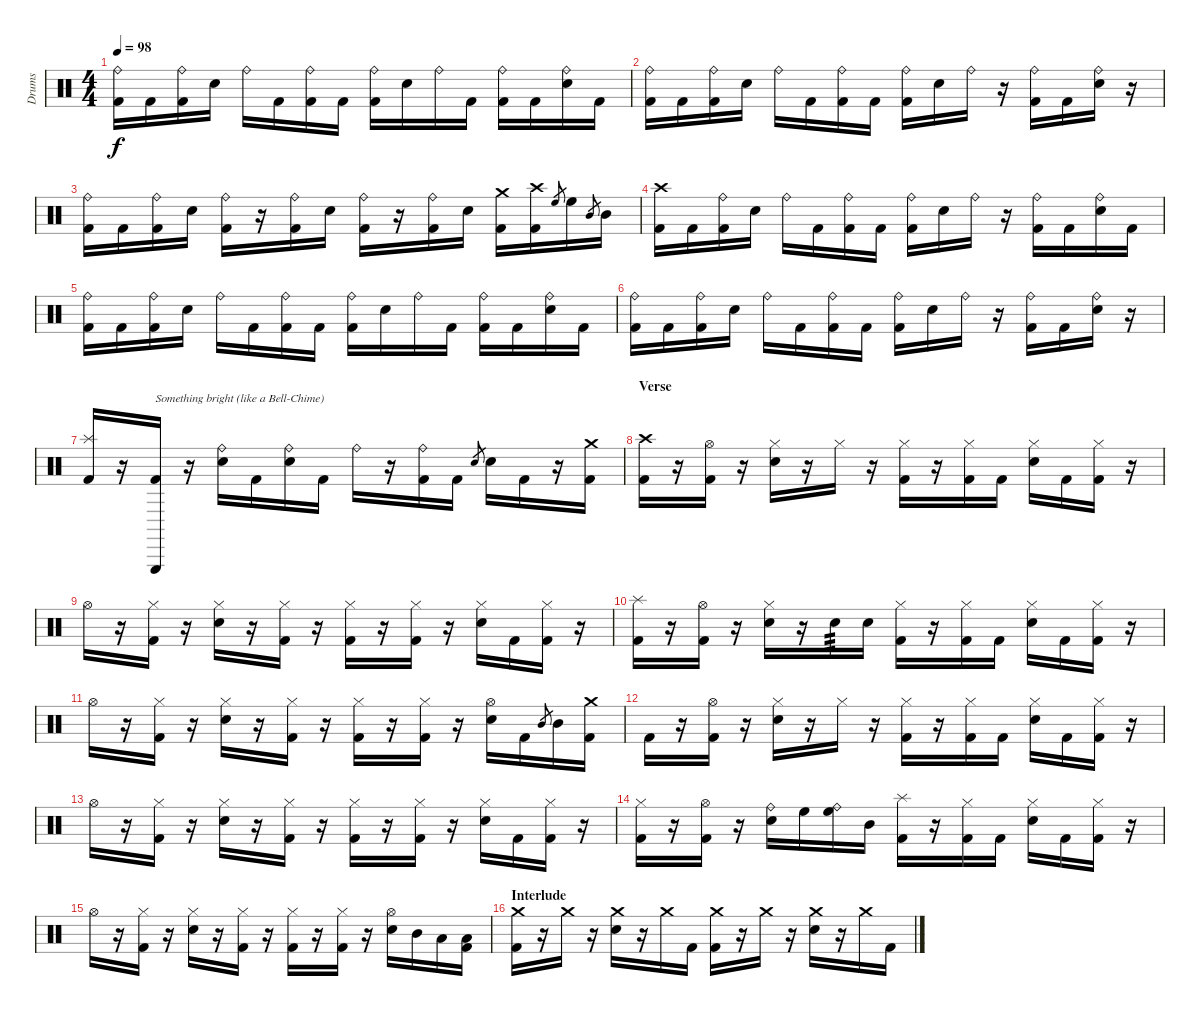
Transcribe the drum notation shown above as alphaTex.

\track ("Drums" "Drums") {instrument percussion}
\staff {score}
\articulation defaults
\ts (4 4)
\tempo 98
\clef neutral
\ks c
("Ride (bell)" "Kick (hit) 2").16{dy f} "Kick (hit) 2".16 ("Ride (bell)" "Kick (hit) 2").16 "Electric Snare (hit)".16 "Ride (bell)".16 "Kick (hit) 2".16 ("Ride (bell)" "Kick (hit) 2").16 "Kick (hit) 2".16 ("Ride (bell)" "Kick (hit) 2").16 "Electric Snare (hit)".16 "Ride (bell)".16 "Kick (hit) 2".16 ("Ride (bell)" "Kick (hit) 2").16 "Kick (hit) 2".16 ("Ride (bell)" "Electric Snare (hit)").16 "Kick (hit) 2".16 |
("Ride (bell)" "Kick (hit) 2").16 "Kick (hit) 2".16 ("Ride (bell)" "Kick (hit) 2").16 "Electric Snare (hit)".16 "Ride (bell)".16 "Kick (hit) 2".16 ("Ride (bell)" "Kick (hit) 2").16 "Kick (hit) 2".16 ("Ride (bell)" "Kick (hit) 2").16 "Electric Snare (hit)".16 "Ride (bell)".16 r.16 ("Ride (bell)" "Kick (hit) 2").16 "Kick (hit) 2".16 ("Ride (bell)" "Electric Snare (hit)").16 r.16 |
("Ride (bell)" "Kick (hit) 2").16 "Kick (hit) 2".16 ("Ride (bell)" "Kick (hit) 2").16 "Electric Snare (hit)".16 ("Ride (bell)" "Kick (hit) 2").16 r.16 ("Ride (bell)" "Kick (hit) 2").16 "Electric Snare (hit)".16 ("Ride (bell)" "Kick (hit) 2").16 r.16 ("Ride (bell)" "Kick (hit) 2").16 "Electric Snare (hit)".16 ("Crash medium (hit)" "Kick (hit) 2").16 ("Crash high (hit)" "Kick (hit) 2").16 "High Floor Tom (hit)".8{gr} "High Floor Tom (hit)".16 "Mid Tom (hit)".8{gr} "Mid Tom (hit)".16 |
("Crash high (hit)" "Kick (hit) 2").16 "Kick (hit) 2".16 ("Ride (bell)" "Kick (hit) 2").16 "Electric Snare (hit)".16 "Ride (bell)".16 "Kick (hit) 2".16 ("Ride (bell)" "Kick (hit) 2").16 "Kick (hit) 2".16 ("Ride (bell)" "Kick (hit) 2").16 "Electric Snare (hit)".16 "Ride (bell)".16 r.16 ("Ride (bell)" "Kick (hit) 2").16 "Kick (hit) 2".16 ("Ride (bell)" "Electric Snare (hit)").16 "Kick (hit) 2".16 |
("Ride (bell)" "Kick (hit) 2").16 "Kick (hit) 2".16 ("Ride (bell)" "Kick (hit) 2").16 "Electric Snare (hit)".16 "Ride (bell)".16 "Kick (hit) 2".16 ("Ride (bell)" "Kick (hit) 2").16 "Kick (hit) 2".16 ("Ride (bell)" "Kick (hit) 2").16 "Electric Snare (hit)".16 "Ride (bell)".16 "Kick (hit) 2".16 ("Ride (bell)" "Kick (hit) 2").16 "Kick (hit) 2".16 ("Ride (bell)" "Electric Snare (hit)").16 "Kick (hit) 2".16 |
("Ride (bell)" "Kick (hit) 2").16 "Kick (hit) 2".16 ("Ride (bell)" "Kick (hit) 2").16 "Electric Snare (hit)".16 "Ride (bell)".16 "Kick (hit) 2".16 ("Ride (bell)" "Kick (hit) 2").16 "Kick (hit) 2".16 ("Ride (bell)" "Kick (hit) 2").16 "Electric Snare (hit)".16 "Ride (bell)".16 r.16 ("Ride (bell)" "Kick (hit) 2").16 "Kick (hit) 2".16 ("Ride (bell)" "Electric Snare (hit)").16 r.16 |
("Splash (hit)" "Kick (hit) 2").16 r.16 ("Triangle (hit)" "Kick (hit) 2").16{txt "Something bright (like a Bell-Chime)"} r.16 ("Ride (bell)" "Electric Snare (hit)").16 "Kick (hit) 2".16 ("Ride (bell)" "Electric Snare (hit)").16 "Kick (hit) 2".16 "Ride (bell)".16 r.16 ("Ride (bell)" "Kick (hit) 2").16 "Kick (hit) 2".16 "Electric Snare (hit)".8{gr} "Electric Snare (hit)".16 "Kick (hit) 2".16 r.16 ("Crash medium (hit)" "Kick (hit) 2").16 |
\section ("" "Verse")
("Crash high (hit)" "Kick (hit) 2").16 r.16 ("Hi-Hat (open)" "Kick (hit) 2").16 r.16 ("Hi-Hat (closed)" "Electric Snare (hit)").16 r.16 "Hi-Hat (closed)".16 r.16 ("Hi-Hat (closed)" "Kick (hit) 2").16 r.16 ("Hi-Hat (closed)" "Kick (hit) 2").16 "Kick (hit) 2".16 ("Hi-Hat (closed)" "Electric Snare (hit)").16 "Kick (hit) 2".16 ("Hi-Hat (closed)" "Kick (hit) 2").16 r.16 |
"Hi-Hat (open)".16 r.16 ("Hi-Hat (closed)" "Kick (hit) 2").16 r.16 ("Hi-Hat (closed)" "Electric Snare (hit)").16 r.16 ("Hi-Hat (closed)" "Kick (hit) 2").16 r.16 ("Hi-Hat (closed)" "Kick (hit) 2").16 r.16 ("Hi-Hat (closed)" "Kick (hit) 2").16 r.16 ("Hi-Hat (closed)" "Electric Snare (hit)").16 "Kick (hit) 2".16 ("Hi-Hat (closed)" "Kick (hit) 2").16 r.16 |
("Splash (hit)" "Kick (hit) 2").16 r.16 ("Hi-Hat (open)" "Kick (hit) 2").16 r.16 ("Hi-Hat (closed)" "Electric Snare (hit)").16 r.16 "Electric Snare (hit)".16{tp 3} "Electric Snare (hit)".16 ("Hi-Hat (closed)" "Kick (hit) 2").16 r.16 ("Hi-Hat (closed)" "Kick (hit) 2").16 "Kick (hit) 2".16 ("Hi-Hat (closed)" "Electric Snare (hit)").16 "Kick (hit) 2".16 ("Hi-Hat (closed)" "Kick (hit) 2").16 r.16 |
"Hi-Hat (open)".16 r.16 ("Hi-Hat (closed)" "Kick (hit) 2").16 r.16 ("Hi-Hat (closed)" "Electric Snare (hit)").16 r.16 ("Hi-Hat (closed)" "Kick (hit) 2").16 r.16 ("Hi-Hat (closed)" "Kick (hit) 2").16 r.16 ("Hi-Hat (closed)" "Kick (hit) 2").16 r.16 ("Hi-Hat (open)" "Electric Snare (hit)").16 "Kick (hit) 2".16 "Mid Tom (hit)".8{gr} "Mid Tom (hit)".16 ("Crash medium (hit)" "Kick (hit) 2").16 |
"Kick (hit) 2".16 r.16 ("Hi-Hat (open)" "Kick (hit) 2").16 r.16 ("Hi-Hat (closed)" "Electric Snare (hit)").16 r.16 "Hi-Hat (closed)".16 r.16 ("Hi-Hat (closed)" "Kick (hit) 2").16 r.16 ("Hi-Hat (closed)" "Kick (hit) 2").16 "Kick (hit) 2".16 ("Hi-Hat (closed)" "Electric Snare (hit)").16 "Kick (hit) 2".16 ("Hi-Hat (closed)" "Kick (hit) 2").16 r.16 |
"Hi-Hat (open)".16 r.16 ("Hi-Hat (closed)" "Kick (hit) 2").16 r.16 ("Hi-Hat (closed)" "Electric Snare (hit)").16 r.16 ("Hi-Hat (closed)" "Kick (hit) 2").16 r.16 ("Hi-Hat (closed)" "Kick (hit) 2").16 r.16 ("Hi-Hat (closed)" "Kick (hit) 2").16 r.16 ("Hi-Hat (closed)" "Electric Snare (hit)").16 "Kick (hit) 2".16 ("Hi-Hat (closed)" "Kick (hit) 2").16 r.16 |
("Hi-Hat (closed)" "Kick (hit) 2").16 r.16 ("Hi-Hat (open)" "Kick (hit) 2").16 r.16 ("Ride (bell)" "Electric Snare (hit)").16 "High Floor Tom (hit)".16 ("Ride (bell)" "High Floor Tom (hit)").16 "Mid Tom (hit)".16 ("Splash (hit)" "Kick (hit) 2").16 r.16 ("Hi-Hat (closed)" "Kick (hit) 2").16 "Kick (hit) 2".16 ("Hi-Hat (closed)" "Electric Snare (hit)").16 "Kick (hit) 2".16 ("Hi-Hat (closed)" "Kick (hit) 2").16 r.16 |
"Hi-Hat (open)".16 r.16 ("Hi-Hat (closed)" "Kick (hit) 2").16 r.16 ("Hi-Hat (closed)" "Electric Snare (hit)").16 r.16 ("Hi-Hat (closed)" "Kick (hit) 2").16 r.16 ("Hi-Hat (closed)" "Kick (hit) 2").16 r.16 ("Hi-Hat (closed)" "Kick (hit) 2").16 r.16 ("Hi-Hat (open)" "Electric Snare (hit)").16 "Mid Tom (hit)".16 "Low Tom (hit)".16 ("Low Floor Tom (hit)" "Kick (hit) 2").16 |
\section ("" "Interlude")
("Crash medium (hit)" "Kick (hit) 2").16 r.16 "Crash medium (hit)".16 r.16 ("Crash medium (hit)" "Electric Snare (hit)").16 r.16 "Crash medium (hit)".16 "Kick (hit) 2".16 ("Crash medium (hit)" "Kick (hit) 2").16 r.16 "Crash medium (hit)".16 r.16 ("Crash medium (hit)" "Electric Snare (hit)").16 r.16 "Crash medium (hit)".16 "Kick (hit) 2".16
